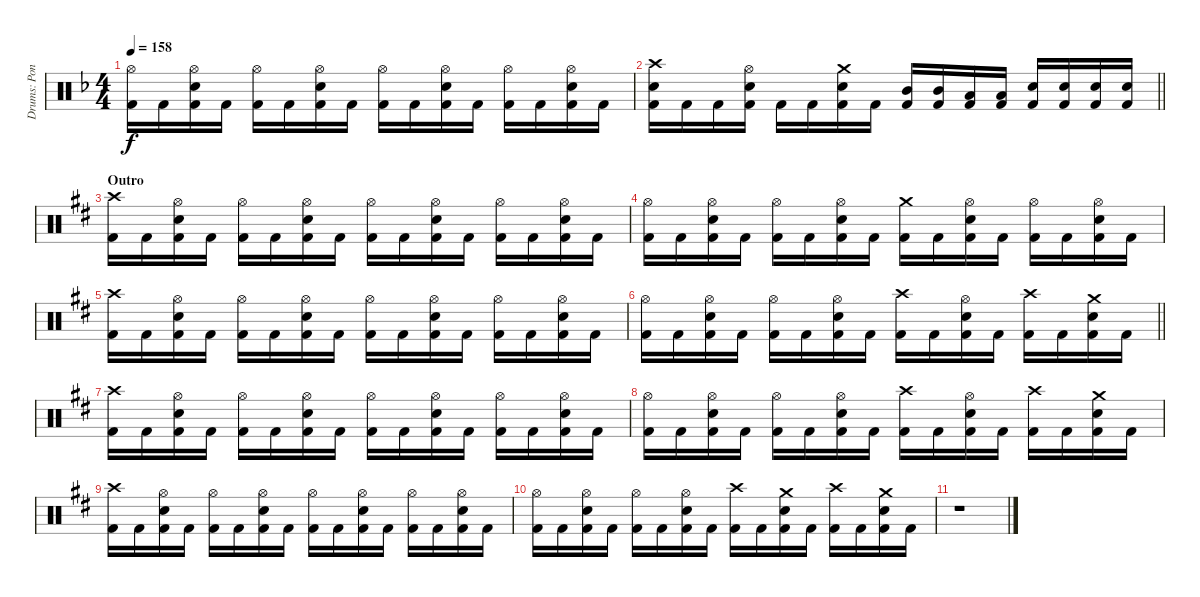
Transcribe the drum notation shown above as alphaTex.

\track ("Drums: Pontus Jansson" "Drums: Pon") {instrument percussion}
\staff {score}
\articulation defaults
\ts (4 4)
\tempo 158
\clef neutral
\ks dminor
("Hi-Hat (open)" "Kick (hit) 2").16{dy f} "Kick (hit) 2".16 ("Hi-Hat (open)" "Electric Snare (hit)" "Kick (hit) 2").16 "Kick (hit) 2".16 ("Hi-Hat (open)" "Kick (hit) 2").16 "Kick (hit) 2".16 ("Hi-Hat (open)" "Electric Snare (hit)" "Kick (hit) 2").16 "Kick (hit) 2".16 ("Hi-Hat (open)" "Kick (hit) 2").16 "Kick (hit) 2".16 ("Hi-Hat (open)" "Electric Snare (hit)" "Kick (hit) 2").16 "Kick (hit) 2".16 ("Hi-Hat (open)" "Kick (hit) 2").16 "Kick (hit) 2".16 ("Hi-Hat (open)" "Electric Snare (hit)" "Kick (hit) 2").16 "Kick (hit) 2".16 |
\barLineRight lightlight
("Crash high (hit)" "Electric Snare (hit)" "Kick (hit) 2").16 "Kick (hit) 2".16 "Kick (hit) 2".16 ("Hi-Hat (open)" "Electric Snare (hit)" "Kick (hit) 2").16 "Kick (hit) 2".16 "Kick (hit) 2".16 ("Crash medium (hit)" "Electric Snare (hit)" "Kick (hit) 2").16 "Kick (hit) 2".16 ("Mid Tom (hit)" "Kick (hit) 2").16 ("Mid Tom (hit)" "Kick (hit) 2").16 ("Low Tom (hit)" "Kick (hit) 2").16 ("Low Tom (hit)" "Kick (hit) 2").16 ("Electric Snare (hit)" "Kick (hit) 2").16 ("Electric Snare (hit)" "Kick (hit) 2").16 ("Electric Snare (hit)" "Kick (hit) 2").16 ("Electric Snare (hit)" "Kick (hit) 2").16 |
\section ("" "Outro")
\ks bminor
("Crash high (hit)" "Kick (hit) 2").16 "Kick (hit) 2".16 ("Hi-Hat (open)" "Electric Snare (hit)" "Kick (hit) 2").16 "Kick (hit) 2".16 ("Hi-Hat (open)" "Kick (hit) 2").16 "Kick (hit) 2".16 ("Hi-Hat (open)" "Electric Snare (hit)" "Kick (hit) 2").16 "Kick (hit) 2".16 ("Hi-Hat (open)" "Kick (hit) 2").16 "Kick (hit) 2".16 ("Hi-Hat (open)" "Electric Snare (hit)" "Kick (hit) 2").16 "Kick (hit) 2".16 ("Hi-Hat (open)" "Kick (hit) 2").16 "Kick (hit) 2".16 ("Hi-Hat (open)" "Electric Snare (hit)" "Kick (hit) 2").16 "Kick (hit) 2".16 |
("Hi-Hat (open)" "Kick (hit) 2").16 "Kick (hit) 2".16 ("Hi-Hat (open)" "Electric Snare (hit)" "Kick (hit) 2").16 "Kick (hit) 2".16 ("Hi-Hat (open)" "Kick (hit) 2").16 "Kick (hit) 2".16 ("Hi-Hat (open)" "Electric Snare (hit)" "Kick (hit) 2").16 "Kick (hit) 2".16 ("Crash medium (hit)" "Kick (hit) 2").16 "Kick (hit) 2".16 ("Hi-Hat (open)" "Electric Snare (hit)" "Kick (hit) 2").16 "Kick (hit) 2".16 ("Hi-Hat (open)" "Kick (hit) 2").16 "Kick (hit) 2".16 ("Hi-Hat (open)" "Electric Snare (hit)" "Kick (hit) 2").16 "Kick (hit) 2".16 |
("Crash high (hit)" "Kick (hit) 2").16 "Kick (hit) 2".16 ("Hi-Hat (open)" "Electric Snare (hit)" "Kick (hit) 2").16 "Kick (hit) 2".16 ("Hi-Hat (open)" "Kick (hit) 2").16 "Kick (hit) 2".16 ("Hi-Hat (open)" "Electric Snare (hit)" "Kick (hit) 2").16 "Kick (hit) 2".16 ("Hi-Hat (open)" "Kick (hit) 2").16 "Kick (hit) 2".16 ("Hi-Hat (open)" "Electric Snare (hit)" "Kick (hit) 2").16 "Kick (hit) 2".16 ("Hi-Hat (open)" "Kick (hit) 2").16 "Kick (hit) 2".16 ("Hi-Hat (open)" "Electric Snare (hit)" "Kick (hit) 2").16 "Kick (hit) 2".16 |
\barLineRight lightlight
("Hi-Hat (open)" "Kick (hit) 2").16 "Kick (hit) 2".16 ("Hi-Hat (open)" "Electric Snare (hit)" "Kick (hit) 2").16 "Kick (hit) 2".16 ("Hi-Hat (open)" "Kick (hit) 2").16 "Kick (hit) 2".16 ("Hi-Hat (open)" "Electric Snare (hit)" "Kick (hit) 2").16 "Kick (hit) 2".16 ("Crash high (hit)" "Kick (hit) 2").16 "Kick (hit) 2".16 ("Hi-Hat (open)" "Electric Snare (hit)" "Kick (hit) 2").16 "Kick (hit) 2".16 ("Crash high (hit)" "Kick (hit) 2").16 "Kick (hit) 2".16 ("Crash medium (hit)" "Electric Snare (hit)" "Kick (hit) 2").16 "Kick (hit) 2".16 |
("Crash high (hit)" "Kick (hit) 2").16 "Kick (hit) 2".16 ("Hi-Hat (open)" "Electric Snare (hit)" "Kick (hit) 2").16 "Kick (hit) 2".16 ("Hi-Hat (open)" "Kick (hit) 2").16 "Kick (hit) 2".16 ("Hi-Hat (open)" "Electric Snare (hit)" "Kick (hit) 2").16 "Kick (hit) 2".16 ("Hi-Hat (open)" "Kick (hit) 2").16 "Kick (hit) 2".16 ("Hi-Hat (open)" "Electric Snare (hit)" "Kick (hit) 2").16 "Kick (hit) 2".16 ("Hi-Hat (open)" "Kick (hit) 2").16 "Kick (hit) 2".16 ("Hi-Hat (open)" "Electric Snare (hit)" "Kick (hit) 2").16 "Kick (hit) 2".16 |
("Hi-Hat (open)" "Kick (hit) 2").16 "Kick (hit) 2".16 ("Hi-Hat (open)" "Electric Snare (hit)" "Kick (hit) 2").16 "Kick (hit) 2".16 ("Hi-Hat (open)" "Kick (hit) 2").16 "Kick (hit) 2".16 ("Hi-Hat (open)" "Electric Snare (hit)" "Kick (hit) 2").16 "Kick (hit) 2".16 ("Crash high (hit)" "Kick (hit) 2").16 "Kick (hit) 2".16 ("Hi-Hat (open)" "Electric Snare (hit)" "Kick (hit) 2").16 "Kick (hit) 2".16 ("Crash high (hit)" "Kick (hit) 2").16 "Kick (hit) 2".16 ("Crash medium (hit)" "Electric Snare (hit)" "Kick (hit) 2").16 "Kick (hit) 2".16 |
("Crash high (hit)" "Kick (hit) 2").16 "Kick (hit) 2".16 ("Hi-Hat (open)" "Electric Snare (hit)" "Kick (hit) 2").16 "Kick (hit) 2".16 ("Hi-Hat (open)" "Kick (hit) 2").16 "Kick (hit) 2".16 ("Hi-Hat (open)" "Electric Snare (hit)" "Kick (hit) 2").16 "Kick (hit) 2".16 ("Hi-Hat (open)" "Kick (hit) 2").16 "Kick (hit) 2".16 ("Hi-Hat (open)" "Electric Snare (hit)" "Kick (hit) 2").16 "Kick (hit) 2".16 ("Hi-Hat (open)" "Kick (hit) 2").16 "Kick (hit) 2".16 ("Hi-Hat (open)" "Electric Snare (hit)" "Kick (hit) 2").16 "Kick (hit) 2".16 |
("Hi-Hat (open)" "Kick (hit) 2").16 "Kick (hit) 2".16 ("Hi-Hat (open)" "Electric Snare (hit)" "Kick (hit) 2").16 "Kick (hit) 2".16 ("Hi-Hat (open)" "Kick (hit) 2").16 "Kick (hit) 2".16 ("Hi-Hat (open)" "Electric Snare (hit)" "Kick (hit) 2").16 "Kick (hit) 2".16 ("Crash high (hit)" "Kick (hit) 2").16 "Kick (hit) 2".16 ("Crash medium (hit)" "Electric Snare (hit)" "Kick (hit) 2").16 "Kick (hit) 2".16 ("Crash high (hit)" "Kick (hit) 2").16 "Kick (hit) 2".16 ("Crash medium (hit)" "Electric Snare (hit)" "Kick (hit) 2").16 "Kick (hit) 2".16 |
r.1
